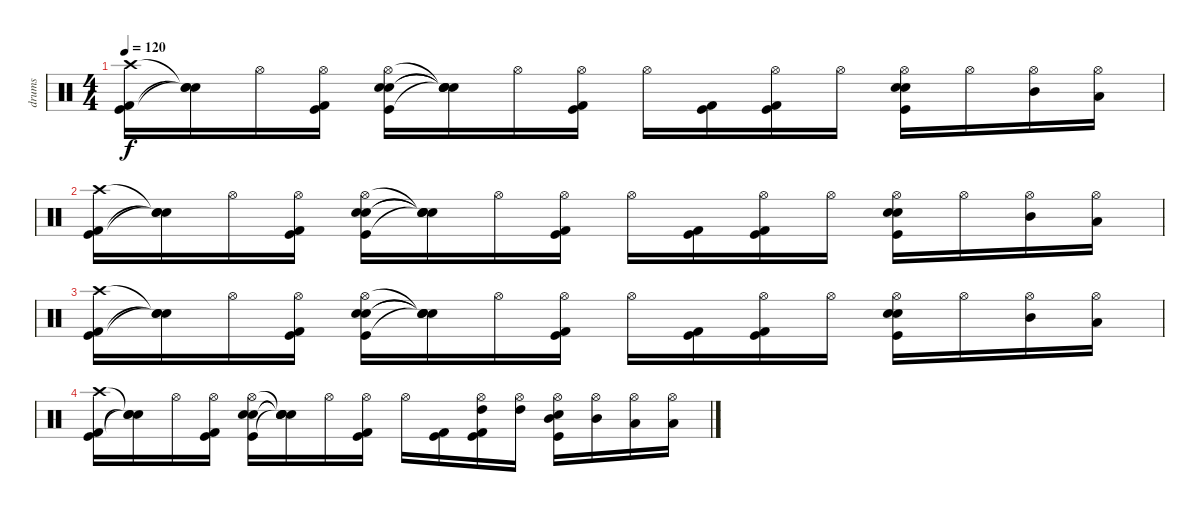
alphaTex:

\track ("drums" "drums") {instrument percussion}
\staff {score}
\articulation defaults
\ts (4 4)
\tempo 120
\clef neutral
\ks c
("Kick (hit) 2" "Kick (hit)" "Crash high (hit)").16{dy f} ("Snare (hit)"{t} "Snare (hit)"{t} "Snare (hit)"{t}).16 "Hi-Hat (open)".16 ("Kick (hit)" "Kick (hit) 2" "Hi-Hat (open)").16 ("Snare (hit) 2" "Kick (hit)" "Electric Snare (hit)" "Hi-Hat (open)").16 ("Snare (hit)"{t} "Snare (hit)"{t} "Snare (hit)"{t} "Snare (hit)"{t}).16 "Hi-Hat (open)".16 ("Kick (hit)" "Kick (hit) 2" "Hi-Hat (open)").16 "Hi-Hat (open)".16 ("Kick (hit)" "Kick (hit) 2").16 ("Kick (hit)" "Kick (hit) 2" "Hi-Hat (open)").16 "Hi-Hat (open)".16 ("Snare (hit) 2" "Kick (hit)" "Electric Snare (hit)" "Hi-Hat (open)").16 "Hi-Hat (open)".16 ("Mid Tom (hit)" "Hi-Hat (open)").16 ("Low Tom (hit)" "Hi-Hat (open)").16 |
("Kick (hit) 2" "Kick (hit)" "Crash high (hit)").16 ("Snare (hit)"{t} "Snare (hit)"{t} "Snare (hit)"{t}).16 "Hi-Hat (open)".16 ("Kick (hit)" "Kick (hit) 2" "Hi-Hat (open)").16 ("Snare (hit) 2" "Kick (hit)" "Electric Snare (hit)" "Hi-Hat (open)").16 ("Snare (hit)"{t} "Snare (hit)"{t} "Snare (hit)"{t} "Snare (hit)"{t}).16 "Hi-Hat (open)".16 ("Kick (hit)" "Kick (hit) 2" "Hi-Hat (open)").16 "Hi-Hat (open)".16 ("Kick (hit)" "Kick (hit) 2").16 ("Kick (hit)" "Kick (hit) 2" "Hi-Hat (open)").16 "Hi-Hat (open)".16 ("Snare (hit) 2" "Kick (hit)" "Electric Snare (hit)" "Hi-Hat (open)").16 "Hi-Hat (open)".16 ("Mid Tom (hit)" "Hi-Hat (open)").16 ("Low Tom (hit)" "Hi-Hat (open)").16 |
("Kick (hit) 2" "Kick (hit)" "Crash high (hit)").16 ("Snare (hit)"{t} "Snare (hit)"{t} "Snare (hit)"{t}).16 "Hi-Hat (open)".16 ("Kick (hit)" "Kick (hit) 2" "Hi-Hat (open)").16 ("Snare (hit) 2" "Kick (hit)" "Electric Snare (hit)" "Hi-Hat (open)").16 ("Snare (hit)"{t} "Snare (hit)"{t} "Snare (hit)"{t} "Snare (hit)"{t}).16 "Hi-Hat (open)".16 ("Kick (hit)" "Kick (hit) 2" "Hi-Hat (open)").16 "Hi-Hat (open)".16 ("Kick (hit)" "Kick (hit) 2").16 ("Kick (hit)" "Kick (hit) 2" "Hi-Hat (open)").16 "Hi-Hat (open)".16 ("Snare (hit) 2" "Kick (hit)" "Electric Snare (hit)" "Hi-Hat (open)").16 "Hi-Hat (open)".16 ("Mid Tom (hit)" "Hi-Hat (open)").16 ("Low Tom (hit)" "Hi-Hat (open)").16 |
("Kick (hit) 2" "Kick (hit)" "Crash high (hit)").16 ("Snare (hit)"{t} "Snare (hit)"{t} "Snare (hit)"{t}).16 "Hi-Hat (open)".16 ("Kick (hit)" "Kick (hit) 2" "Hi-Hat (open)").16 ("Snare (hit) 2" "Kick (hit)" "Electric Snare (hit)" "Hi-Hat (open)").16 ("Snare (hit)"{t} "Snare (hit)"{t} "Snare (hit)"{t} "Snare (hit)"{t}).16 "Hi-Hat (open)".16 ("Kick (hit)" "Kick (hit) 2" "Hi-Hat (open)").16 "Hi-Hat (open)".16 ("Kick (hit)" "Kick (hit) 2").16 ("High Tom (hit)" "Kick (hit)" "Kick (hit) 2" "Hi-Hat (open)").16 ("High Tom (hit)" "Hi-Hat (open)").16 ("Mid Tom (hit)" "Kick (hit)" "Electric Snare (hit)" "Hi-Hat (open)").16 ("Mid Tom (hit)" "Hi-Hat (open)").16 ("Low Tom (hit)" "Hi-Hat (open)").16 ("Low Floor Tom (hit)" "Hi-Hat (open)").16
